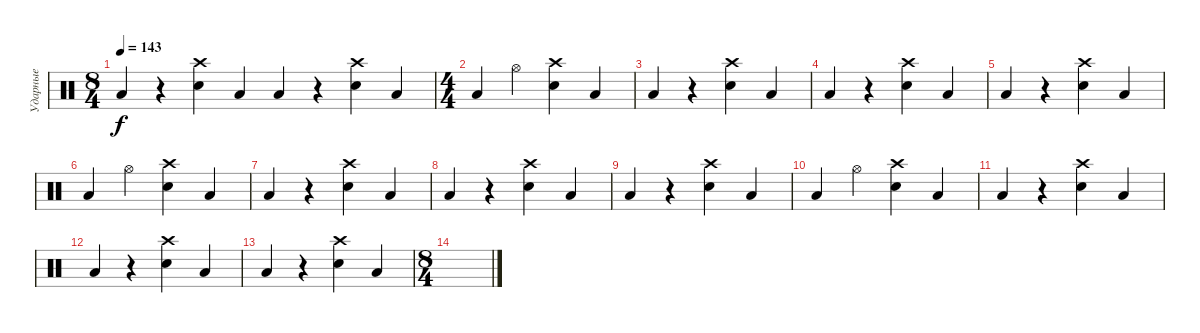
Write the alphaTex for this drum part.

\track ("Ударные" "Ударные") {instrument percussion}
\staff {score}
\articulation defaults
\ts (8 4)
\tempo 143
\clef neutral
\ks c "Low Tom (hit)".4{dy f}
r.4 ("Crash high (hit)" "Snare (hit) 2").4 "Low Tom (hit)".4 "Low Tom (hit)".4 r.4 ("Crash high (hit)" "Snare (hit) 2").4 "Low Tom (hit)".4 |
\ts (4 4)
"Low Tom (hit)".4 "Hi-Hat (open)".4 ("Crash high (hit)" "Snare (hit) 2").4 "Low Tom (hit)".4 |
"Low Tom (hit)".4 r.4 ("Crash high (hit)" "Snare (hit) 2").4 "Low Tom (hit)".4 |
"Low Tom (hit)".4 r.4 ("Crash high (hit)" "Snare (hit) 2").4 "Low Tom (hit)".4 |
"Low Tom (hit)".4 r.4 ("Crash high (hit)" "Snare (hit) 2").4 "Low Tom (hit)".4 |
"Low Tom (hit)".4 "Hi-Hat (open)".4 ("Crash high (hit)" "Snare (hit) 2").4 "Low Tom (hit)".4 |
"Low Tom (hit)".4 r.4 ("Crash high (hit)" "Snare (hit) 2").4 "Low Tom (hit)".4 |
"Low Tom (hit)".4 r.4 ("Crash high (hit)" "Snare (hit) 2").4 "Low Tom (hit)".4 |
"Low Tom (hit)".4 r.4 ("Crash high (hit)" "Snare (hit) 2").4 "Low Tom (hit)".4 |
"Low Tom (hit)".4 "Hi-Hat (open)".4 ("Crash high (hit)" "Snare (hit) 2").4 "Low Tom (hit)".4 |
"Low Tom (hit)".4 r.4 ("Crash high (hit)" "Snare (hit) 2").4 "Low Tom (hit)".4 |
"Low Tom (hit)".4 r.4 ("Crash high (hit)" "Snare (hit) 2").4 "Low Tom (hit)".4 |
"Low Tom (hit)".4 r.4 ("Crash high (hit)" "Snare (hit) 2").4 "Low Tom (hit)".4 |
\ts (8 4)
